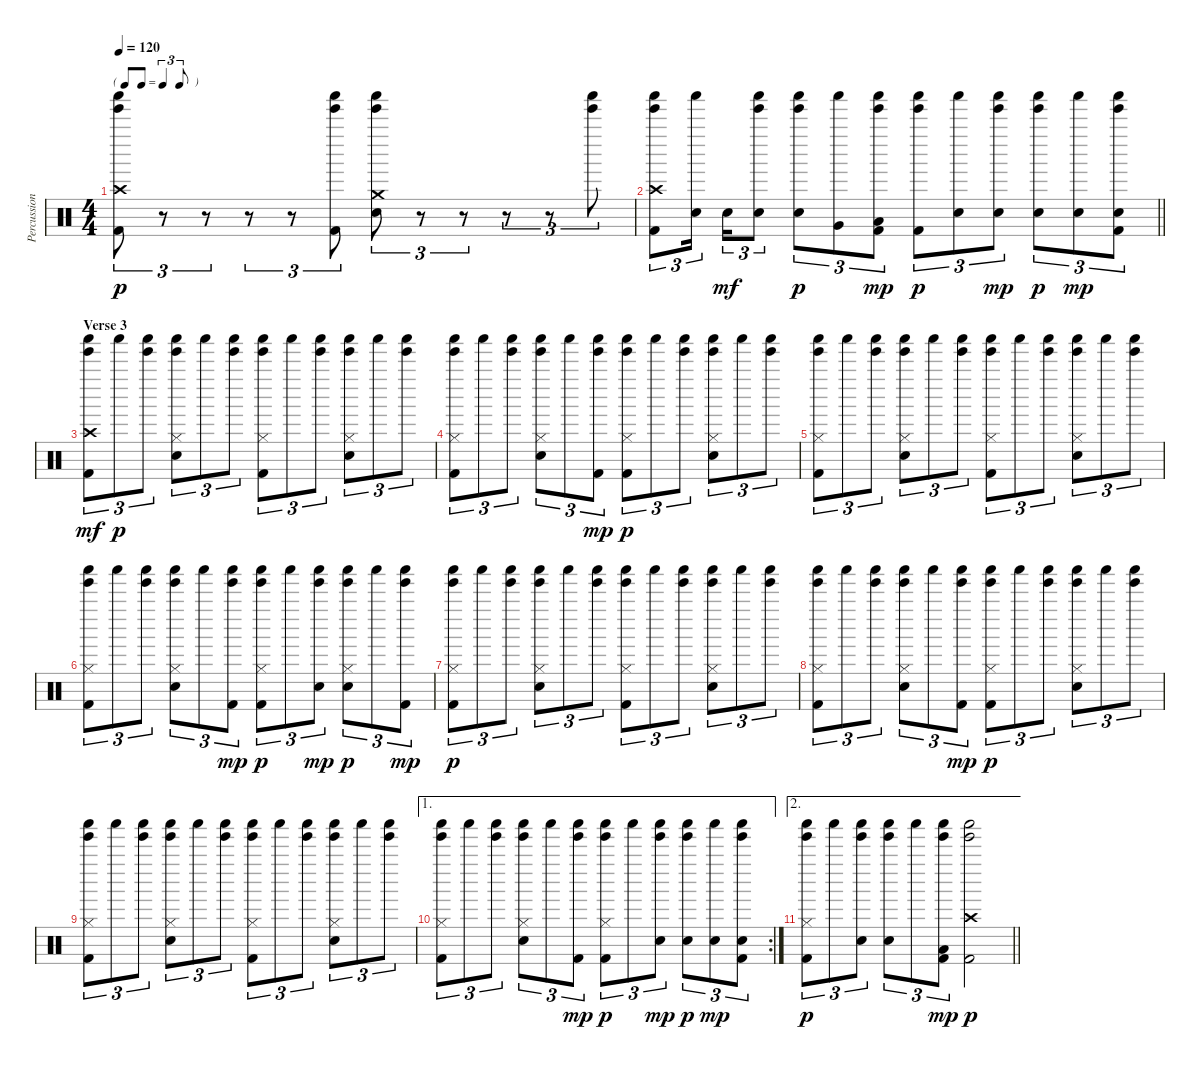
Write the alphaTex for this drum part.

\track ("Percussion" "Percussion") {instrument percussion}
\staff {score}
\articulation defaults
\ts (4 4)
\tf triplet8th
\tempo 120
\clef neutral
\ks c
("Shaker (hit)" "Tinkle Bell (hit)" "Crash high (hit)" "Kick (hit) 2").8{tu (3 2) dy p} r.8{tu (3 2)} r.8{tu (3 2)} r.8{tu (3 2)} r.8{tu (3 2)} ("Shaker (hit)" "Tinkle Bell (hit)" "Kick (hit) 2").8{tu (3 2)} ("Shaker (hit)" "Tinkle Bell (hit)" "Crash medium (hit)" "Snare (hit) 2").8{tu (3 2)} r.8{tu (3 2)} r.8{tu (3 2)} r.8{tu (3 2)} r.8{tu (3 2)} ("Shaker (hit)" "Tinkle Bell (hit)").8{tu (3 2)} |
\barLineRight lightlight
("Shaker (hit)" "Tinkle Bell (hit)" "Crash high (hit)" "Kick (hit) 2").8{tu (3 2)} ("Shaker (hit)" "Snare (hit) 2").16{tu (3 2) beam splitsecondary} "Snare (hit) 2".16{tu (3 2) dy mf} ("Shaker (hit)" "Tinkle Bell (hit)" "Snare (hit) 2").8{tu (3 2)} ("Shaker (hit)" "Tinkle Bell (hit)" "Snare (hit) 2").8{tu (3 2) dy p} ("Shaker (hit)" "Very Low Tom (hit)").8{tu (3 2)} ("Shaker (hit)" "Tinkle Bell (hit)" "Low Floor Tom (hit)" "Kick (hit) 2").8{tu (3 2) dy mp} ("Shaker (hit)" "Tinkle Bell (hit)" "Kick (hit) 2").8{tu (3 2) dy p} ("Shaker (hit)" "Snare (hit) 2").8{tu (3 2)} ("Shaker (hit)" "Tinkle Bell (hit)" "Snare (hit) 2").8{tu (3 2) dy mp} ("Shaker (hit)" "Tinkle Bell (hit)" "Snare (hit) 2").8{tu (3 2) dy p} ("Shaker (hit)" "Snare (hit) 2").8{tu (3 2) dy mp} ("Shaker (hit)" "Tinkle Bell (hit)" "Snare (hit) 2" "Kick (hit) 2").8{tu (3 2)} |
\section ("" "Verse 3")
("Shaker (hit)" "Tinkle Bell (hit)" "Crash high (hit)" "Kick (hit) 2").8{tu (3 2) dy mf} "Shaker (hit)".8{tu (3 2) dy p} ("Shaker (hit)" "Tinkle Bell (hit)").8{tu (3 2)} ("Shaker (hit)" "Tinkle Bell (hit)" "Hi-Hat (closed)" "Snare (hit) 2").8{tu (3 2)} "Shaker (hit)".8{tu (3 2)} ("Shaker (hit)" "Tinkle Bell (hit)").8{tu (3 2)} ("Shaker (hit)" "Tinkle Bell (hit)" "Hi-Hat (closed)" "Kick (hit) 2").8{tu (3 2)} "Shaker (hit)".8{tu (3 2)} ("Shaker (hit)" "Tinkle Bell (hit)").8{tu (3 2)} ("Shaker (hit)" "Tinkle Bell (hit)" "Hi-Hat (closed)" "Snare (hit) 2").8{tu (3 2)} "Shaker (hit)".8{tu (3 2)} ("Shaker (hit)" "Tinkle Bell (hit)").8{tu (3 2)} |
("Shaker (hit)" "Tinkle Bell (hit)" "Hi-Hat (closed)" "Kick (hit) 2").8{tu (3 2)} "Shaker (hit)".8{tu (3 2)} ("Shaker (hit)" "Tinkle Bell (hit)").8{tu (3 2)} ("Shaker (hit)" "Tinkle Bell (hit)" "Hi-Hat (closed)" "Snare (hit) 2").8{tu (3 2)} "Shaker (hit)".8{tu (3 2)} ("Shaker (hit)" "Tinkle Bell (hit)" "Kick (hit) 2").8{tu (3 2) dy mp} ("Shaker (hit)" "Tinkle Bell (hit)" "Hi-Hat (closed)" "Kick (hit) 2").8{tu (3 2) dy p} "Shaker (hit)".8{tu (3 2)} ("Shaker (hit)" "Tinkle Bell (hit)").8{tu (3 2)} ("Shaker (hit)" "Tinkle Bell (hit)" "Hi-Hat (closed)" "Snare (hit) 2").8{tu (3 2)} "Shaker (hit)".8{tu (3 2)} ("Shaker (hit)" "Tinkle Bell (hit)").8{tu (3 2)} |
("Shaker (hit)" "Tinkle Bell (hit)" "Hi-Hat (closed)" "Kick (hit) 2").8{tu (3 2)} "Shaker (hit)".8{tu (3 2)} ("Shaker (hit)" "Tinkle Bell (hit)").8{tu (3 2)} ("Shaker (hit)" "Tinkle Bell (hit)" "Hi-Hat (closed)" "Snare (hit) 2").8{tu (3 2)} "Shaker (hit)".8{tu (3 2)} ("Shaker (hit)" "Tinkle Bell (hit)").8{tu (3 2)} ("Shaker (hit)" "Tinkle Bell (hit)" "Hi-Hat (closed)" "Kick (hit) 2").8{tu (3 2)} "Shaker (hit)".8{tu (3 2)} ("Shaker (hit)" "Tinkle Bell (hit)").8{tu (3 2)} ("Shaker (hit)" "Tinkle Bell (hit)" "Hi-Hat (closed)" "Snare (hit) 2").8{tu (3 2)} "Shaker (hit)".8{tu (3 2)} ("Shaker (hit)" "Tinkle Bell (hit)").8{tu (3 2)} |
("Shaker (hit)" "Tinkle Bell (hit)" "Hi-Hat (closed)" "Kick (hit) 2").8{tu (3 2)} "Shaker (hit)".8{tu (3 2)} ("Shaker (hit)" "Tinkle Bell (hit)").8{tu (3 2)} ("Shaker (hit)" "Tinkle Bell (hit)" "Hi-Hat (closed)" "Snare (hit) 2").8{tu (3 2)} "Shaker (hit)".8{tu (3 2)} ("Shaker (hit)" "Tinkle Bell (hit)" "Kick (hit) 2").8{tu (3 2) dy mp} ("Shaker (hit)" "Tinkle Bell (hit)" "Hi-Hat (closed)" "Kick (hit) 2").8{tu (3 2) dy p} "Shaker (hit)".8{tu (3 2)} ("Shaker (hit)" "Tinkle Bell (hit)" "Snare (hit) 2").8{tu (3 2) dy mp} ("Shaker (hit)" "Tinkle Bell (hit)" "Hi-Hat (closed)" "Snare (hit) 2").8{tu (3 2) dy p} "Shaker (hit)".8{tu (3 2)} ("Shaker (hit)" "Tinkle Bell (hit)" "Kick (hit) 2").8{tu (3 2) dy mp} |
("Shaker (hit)" "Tinkle Bell (hit)" "Hi-Hat (closed)" "Kick (hit) 2").8{tu (3 2) dy p} "Shaker (hit)".8{tu (3 2)} ("Shaker (hit)" "Tinkle Bell (hit)").8{tu (3 2)} ("Shaker (hit)" "Tinkle Bell (hit)" "Hi-Hat (closed)" "Snare (hit) 2").8{tu (3 2)} "Shaker (hit)".8{tu (3 2)} ("Shaker (hit)" "Tinkle Bell (hit)").8{tu (3 2)} ("Shaker (hit)" "Tinkle Bell (hit)" "Hi-Hat (closed)" "Kick (hit) 2").8{tu (3 2)} "Shaker (hit)".8{tu (3 2)} ("Shaker (hit)" "Tinkle Bell (hit)").8{tu (3 2)} ("Shaker (hit)" "Tinkle Bell (hit)" "Hi-Hat (closed)" "Snare (hit) 2").8{tu (3 2)} "Shaker (hit)".8{tu (3 2)} ("Shaker (hit)" "Tinkle Bell (hit)").8{tu (3 2)} |
("Shaker (hit)" "Tinkle Bell (hit)" "Hi-Hat (closed)" "Kick (hit) 2").8{tu (3 2)} "Shaker (hit)".8{tu (3 2)} ("Shaker (hit)" "Tinkle Bell (hit)").8{tu (3 2)} ("Shaker (hit)" "Tinkle Bell (hit)" "Hi-Hat (closed)" "Snare (hit) 2").8{tu (3 2)} "Shaker (hit)".8{tu (3 2)} ("Shaker (hit)" "Tinkle Bell (hit)" "Kick (hit) 2").8{tu (3 2) dy mp} ("Shaker (hit)" "Tinkle Bell (hit)" "Hi-Hat (closed)" "Kick (hit) 2").8{tu (3 2) dy p} "Shaker (hit)".8{tu (3 2)} ("Shaker (hit)" "Tinkle Bell (hit)").8{tu (3 2)} ("Shaker (hit)" "Tinkle Bell (hit)" "Hi-Hat (closed)" "Snare (hit) 2").8{tu (3 2)} "Shaker (hit)".8{tu (3 2)} ("Shaker (hit)" "Tinkle Bell (hit)").8{tu (3 2)} |
("Shaker (hit)" "Tinkle Bell (hit)" "Hi-Hat (closed)" "Kick (hit) 2").8{tu (3 2)} "Shaker (hit)".8{tu (3 2)} ("Shaker (hit)" "Tinkle Bell (hit)").8{tu (3 2)} ("Shaker (hit)" "Tinkle Bell (hit)" "Hi-Hat (closed)" "Snare (hit) 2").8{tu (3 2)} "Shaker (hit)".8{tu (3 2)} ("Shaker (hit)" "Tinkle Bell (hit)").8{tu (3 2)} ("Shaker (hit)" "Tinkle Bell (hit)" "Hi-Hat (closed)" "Kick (hit) 2").8{tu (3 2)} "Shaker (hit)".8{tu (3 2)} ("Shaker (hit)" "Tinkle Bell (hit)").8{tu (3 2)} ("Shaker (hit)" "Tinkle Bell (hit)" "Hi-Hat (closed)" "Snare (hit) 2").8{tu (3 2)} "Shaker (hit)".8{tu (3 2)} ("Shaker (hit)" "Tinkle Bell (hit)").8{tu (3 2)} |
\ae 1
\rc 2
("Shaker (hit)" "Tinkle Bell (hit)" "Hi-Hat (closed)" "Kick (hit) 2").8{tu (3 2)} "Shaker (hit)".8{tu (3 2)} ("Shaker (hit)" "Tinkle Bell (hit)").8{tu (3 2)} ("Shaker (hit)" "Tinkle Bell (hit)" "Hi-Hat (closed)" "Snare (hit) 2").8{tu (3 2)} "Shaker (hit)".8{tu (3 2)} ("Shaker (hit)" "Tinkle Bell (hit)" "Kick (hit) 2").8{tu (3 2) dy mp} ("Shaker (hit)" "Tinkle Bell (hit)" "Hi-Hat (closed)" "Kick (hit) 2").8{tu (3 2) dy p} "Shaker (hit)".8{tu (3 2)} ("Shaker (hit)" "Tinkle Bell (hit)" "Snare (hit) 2").8{tu (3 2) dy mp} ("Shaker (hit)" "Tinkle Bell (hit)" "Snare (hit) 2").8{tu (3 2) dy p} ("Shaker (hit)" "Snare (hit) 2").8{tu (3 2) dy mp} ("Shaker (hit)" "Tinkle Bell (hit)" "Snare (hit) 2" "Kick (hit) 2").8{tu (3 2)} |
\ae 2
\barLineRight lightlight
("Shaker (hit)" "Tinkle Bell (hit)" "Hi-Hat (closed)" "Kick (hit) 2").8{tu (3 2) dy p} "Shaker (hit)".8{tu (3 2)} ("Shaker (hit)" "Tinkle Bell (hit)" "Snare (hit) 2").8{tu (3 2)} ("Shaker (hit)" "Tinkle Bell (hit)" "Snare (hit) 2").8{tu (3 2)} "Shaker (hit)".8{tu (3 2)} ("Shaker (hit)" "Tinkle Bell (hit)" "Low Floor Tom (hit)" "Kick (hit) 2").8{tu (3 2) dy mp} ("Shaker (hit)" "Tinkle Bell (hit)" "Crash high (hit)" "Kick (hit) 2").2{dy p}
